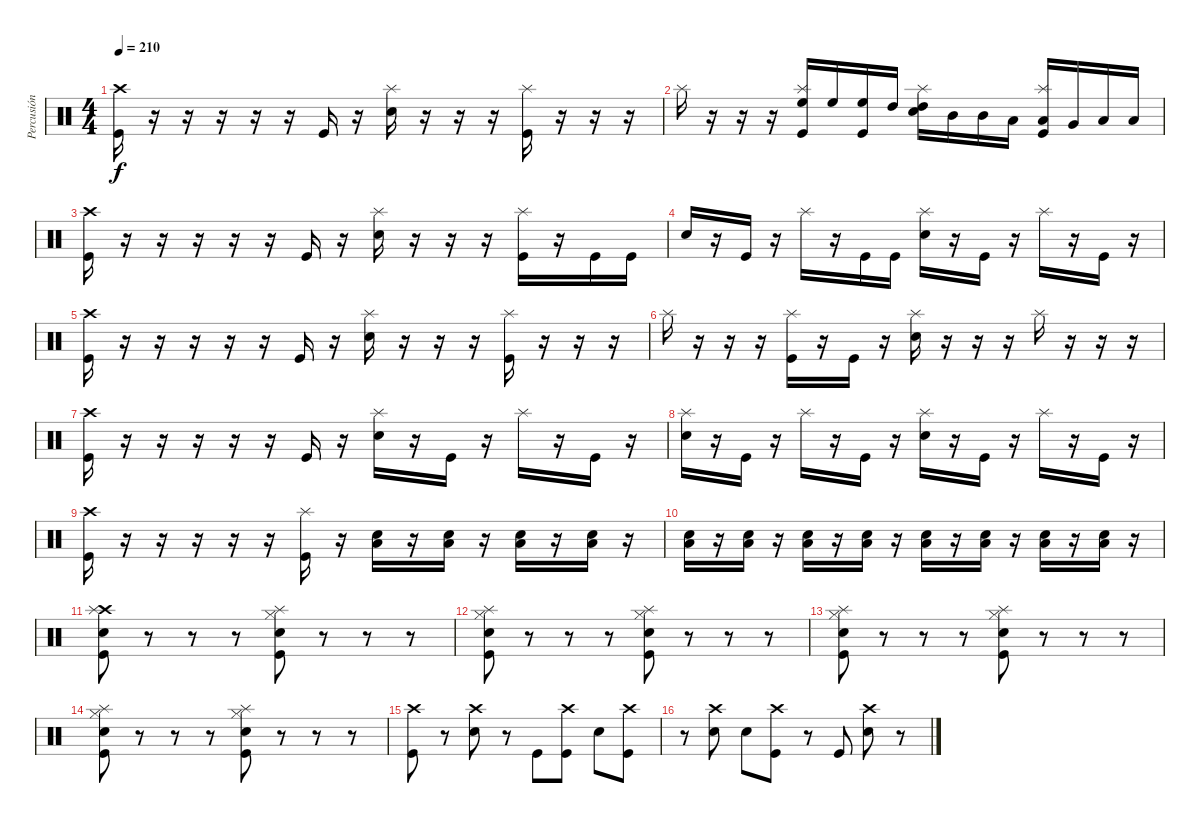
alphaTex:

\track ("Percusión" "Percusión") {instrument percussion}
\staff {score}
\articulation defaults
\ts (4 4)
\tempo 210
\clef neutral
\ks c
("Crash high (hit)" "Kick (hit)").16{dy f} r.16 r.16 r.16 r.16 r.16 "Kick (hit)".16 r.16 ("Splash (hit)" "Snare (hit) 2").16 r.16 r.16 r.16 ("Splash (hit)" "Kick (hit)").16 r.16 r.16 r.16 |
"Splash (hit)".16 r.16 r.16 r.16 ("High Floor Tom (hit)" "Splash (hit)" "Kick (hit)").16 "High Floor Tom (hit)".16 ("High Floor Tom (hit)" "Kick (hit)").16 "High Tom (hit)".16 ("High Tom (hit)" "Splash (hit)" "Snare (hit) 2").16 "Mid Tom (hit)".16 "Mid Tom (hit)".16 "Low Tom (hit)".16 ("Low Tom (hit)" "Splash (hit)" "Kick (hit)").16 "Very Low Tom (hit)".16 "Low Floor Tom (hit)".16 "Low Floor Tom (hit)".16 |
("Crash high (hit)" "Kick (hit)").16 r.16 r.16 r.16 r.16 r.16 "Kick (hit)".16 r.16 ("Splash (hit)" "Snare (hit) 2").16 r.16 r.16 r.16 ("Splash (hit)" "Kick (hit)").16 r.16 "Kick (hit)".16 "Kick (hit)".16 |
"Snare (hit) 2".16 r.16 "Kick (hit)".16 r.16 "Splash (hit)".16 r.16 "Kick (hit)".16 "Kick (hit)".16 ("Splash (hit)" "Snare (hit) 2").16 r.16 "Kick (hit)".16 r.16 "Splash (hit)".16 r.16 "Kick (hit)".16 r.16 |
("Crash high (hit)" "Kick (hit)").16 r.16 r.16 r.16 r.16 r.16 "Kick (hit)".16 r.16 ("Splash (hit)" "Snare (hit) 2").16 r.16 r.16 r.16 ("Splash (hit)" "Kick (hit)").16 r.16 r.16 r.16 |
"Splash (hit)".16 r.16 r.16 r.16 ("Splash (hit)" "Kick (hit)").16 r.16 "Kick (hit)".16 r.16 ("Splash (hit)" "Snare (hit) 2").16 r.16 r.16 r.16 "Splash (hit)".16 r.16 r.16 r.16 |
("Crash high (hit)" "Kick (hit)").16 r.16 r.16 r.16 r.16 r.16 "Kick (hit)".16 r.16 ("Splash (hit)" "Snare (hit) 2").16 r.16 "Kick (hit)".16 r.16 "Splash (hit)".16 r.16 "Kick (hit)".16 r.16 |
("Splash (hit)" "Snare (hit) 2").16 r.16 "Kick (hit)".16 r.16 "Splash (hit)".16 r.16 "Kick (hit)".16 r.16 ("Splash (hit)" "Snare (hit) 2").16 r.16 "Kick (hit)".16 r.16 "Splash (hit)".16 r.16 "Kick (hit)".16 r.16 |
("Crash high (hit)" "Kick (hit)").16 r.16 r.16 r.16 r.16 r.16 ("Splash (hit)" "Kick (hit)").16 r.16 ("Low Floor Tom (hit)" "Snare (hit) 2").16 r.16 ("Low Floor Tom (hit)" "Snare (hit) 2").16 r.16 ("Low Floor Tom (hit)" "Snare (hit) 2").16 r.16 ("Low Floor Tom (hit)" "Snare (hit) 2").16 r.16 |
("Low Floor Tom (hit)" "Snare (hit) 2").16 r.16 ("Low Floor Tom (hit)" "Snare (hit) 2").16 r.16 ("Low Floor Tom (hit)" "Snare (hit) 2").16 r.16 ("Low Floor Tom (hit)" "Snare (hit) 2").16 r.16 ("Low Floor Tom (hit)" "Snare (hit) 2").16 r.16 ("Low Floor Tom (hit)" "Snare (hit) 2").16 r.16 ("Low Floor Tom (hit)" "Snare (hit) 2").16 r.16 ("Low Floor Tom (hit)" "Snare (hit) 2").16 r.16 |
("Crash high (hit)" "Splash (hit)" "Snare (hit) 2" "Kick (hit)").8 r.8 r.8 r.8 ("Hi-Hat (closed)" "Splash (hit)" "Snare (hit) 2" "Kick (hit)").8 r.8 r.8 r.8 |
("Hi-Hat (closed)" "Splash (hit)" "Snare (hit) 2" "Kick (hit)").8 r.8 r.8 r.8 ("Hi-Hat (closed)" "Splash (hit)" "Snare (hit) 2" "Kick (hit)").8 r.8 r.8 r.8 |
("Hi-Hat (closed)" "Splash (hit)" "Snare (hit) 2" "Kick (hit)").8 r.8 r.8 r.8 ("Hi-Hat (closed)" "Splash (hit)" "Snare (hit) 2" "Kick (hit)").8 r.8 r.8 r.8 |
("Hi-Hat (closed)" "Splash (hit)" "Snare (hit) 2" "Kick (hit)").8 r.8 r.8 r.8 ("Hi-Hat (closed)" "Splash (hit)" "Snare (hit) 2" "Kick (hit)").8 r.8 r.8 r.8 |
("Crash high (hit)" "Kick (hit)").8 r.8 ("Crash high (hit)" "Snare (hit) 2").8 r.8 "Kick (hit)".8 ("Crash high (hit)" "Kick (hit)").8 "Snare (hit) 2".8 ("Crash high (hit)" "Kick (hit)").8 |
r.8 ("Crash high (hit)" "Snare (hit) 2").8 "Snare (hit) 2".8 ("Crash high (hit)" "Kick (hit)").8 r.8 "Kick (hit)".8 ("Crash high (hit)" "Snare (hit) 2").8 r.8
